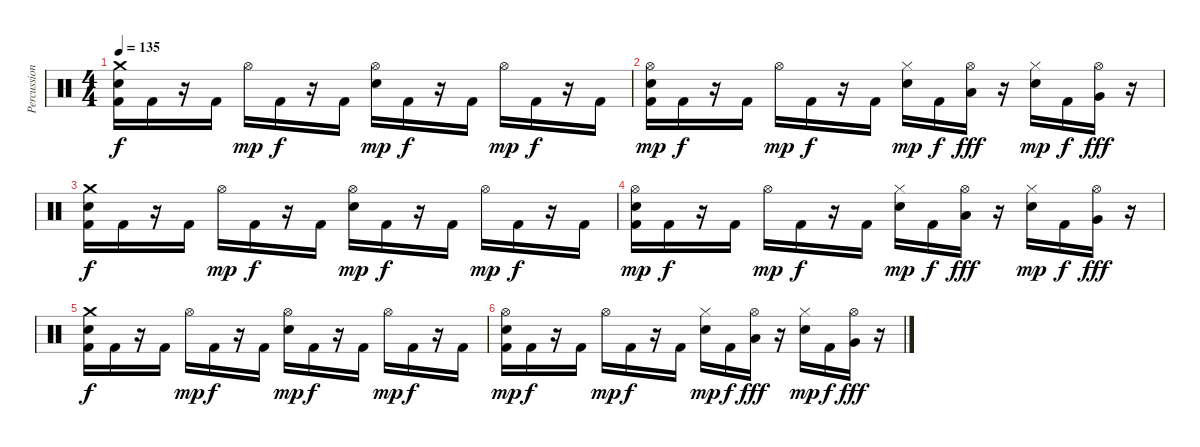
\track ("Percussions" "Percussion") {instrument percussion}
\staff {score}
\articulation defaults
\ts (4 4)
\tempo 135
\clef neutral
\ks c
("Crash medium (hit)" "Electric Snare (hit)" "Kick (hit) 2").16{dy f} "Kick (hit) 2".16 r.16 "Kick (hit) 2".16 "Hi-Hat (open)".16{dy mp} "Kick (hit) 2".16{dy f} r.16 "Kick (hit) 2".16 ("Hi-Hat (open)" "Electric Snare (hit)").16{dy mp} "Kick (hit) 2".16{dy f} r.16 "Kick (hit) 2".16 "Hi-Hat (open)".16{dy mp} "Kick (hit) 2".16{dy f} r.16 "Kick (hit) 2".16 |
("Hi-Hat (open)" "Electric Snare (hit)" "Kick (hit) 2").16{dy mp} "Kick (hit) 2".16{dy f} r.16 "Kick (hit) 2".16 "Hi-Hat (open)".16{dy mp} "Kick (hit) 2".16{dy f} r.16 "Kick (hit) 2".16 ("Hi-Hat (closed)" "Electric Snare (hit)").16{dy mp} "Kick (hit) 2".16{dy f} ("Hi-Hat (open)" "Low Tom (hit)").16{dy fff} r.16 ("Hi-Hat (closed)" "Electric Snare (hit)").16{dy mp} "Kick (hit) 2".16{dy f} ("Hi-Hat (open)" "Very Low Tom (hit)").16{dy fff} r.16 |
("Crash medium (hit)" "Electric Snare (hit)" "Kick (hit) 2").16{dy f} "Kick (hit) 2".16 r.16 "Kick (hit) 2".16 "Hi-Hat (open)".16{dy mp} "Kick (hit) 2".16{dy f} r.16 "Kick (hit) 2".16 ("Hi-Hat (open)" "Electric Snare (hit)").16{dy mp} "Kick (hit) 2".16{dy f} r.16 "Kick (hit) 2".16 "Hi-Hat (open)".16{dy mp} "Kick (hit) 2".16{dy f} r.16 "Kick (hit) 2".16 |
("Hi-Hat (open)" "Electric Snare (hit)" "Kick (hit) 2").16{dy mp} "Kick (hit) 2".16{dy f} r.16 "Kick (hit) 2".16 "Hi-Hat (open)".16{dy mp} "Kick (hit) 2".16{dy f} r.16 "Kick (hit) 2".16 ("Hi-Hat (closed)" "Electric Snare (hit)").16{dy mp} "Kick (hit) 2".16{dy f} ("Hi-Hat (open)" "Low Tom (hit)").16{dy fff} r.16 ("Hi-Hat (closed)" "Electric Snare (hit)").16{dy mp} "Kick (hit) 2".16{dy f} ("Hi-Hat (open)" "Very Low Tom (hit)").16{dy fff} r.16 |
("Crash medium (hit)" "Electric Snare (hit)" "Kick (hit) 2").16{dy f} "Kick (hit) 2".16 r.16 "Kick (hit) 2".16 "Hi-Hat (open)".16{dy mp} "Kick (hit) 2".16{dy f} r.16 "Kick (hit) 2".16 ("Hi-Hat (open)" "Electric Snare (hit)").16{dy mp} "Kick (hit) 2".16{dy f} r.16 "Kick (hit) 2".16 "Hi-Hat (open)".16{dy mp} "Kick (hit) 2".16{dy f} r.16 "Kick (hit) 2".16 |
("Hi-Hat (open)" "Electric Snare (hit)" "Kick (hit) 2").16{dy mp} "Kick (hit) 2".16{dy f} r.16 "Kick (hit) 2".16 "Hi-Hat (open)".16{dy mp} "Kick (hit) 2".16{dy f} r.16 "Kick (hit) 2".16 ("Hi-Hat (closed)" "Electric Snare (hit)").16{dy mp} "Kick (hit) 2".16{dy f} ("Hi-Hat (open)" "Low Tom (hit)").16{dy fff} r.16 ("Hi-Hat (closed)" "Electric Snare (hit)").16{dy mp} "Kick (hit) 2".16{dy f} ("Hi-Hat (open)" "Very Low Tom (hit)").16{dy fff} r.16
